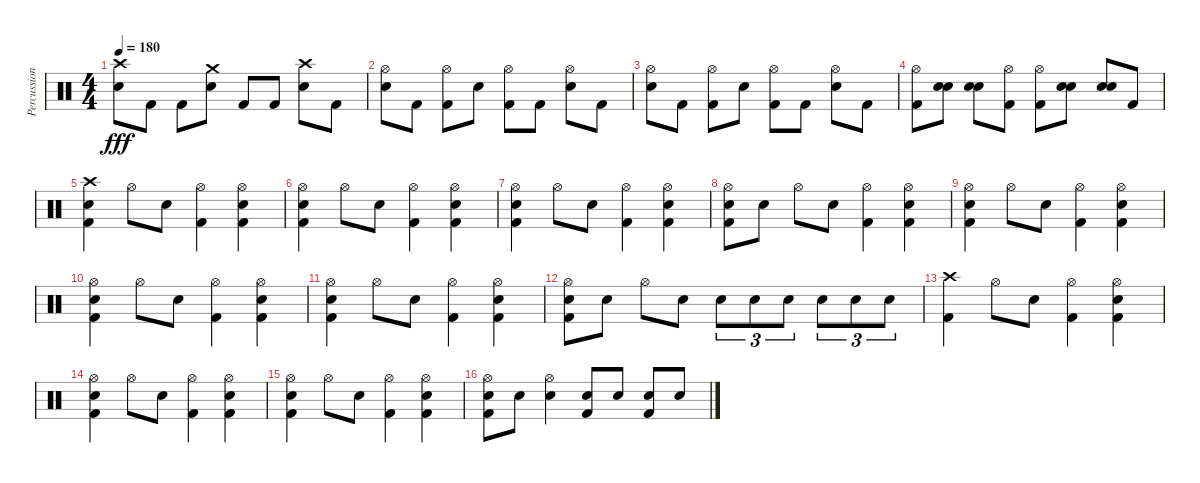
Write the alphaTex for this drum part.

\track ("Percussion" "Percussion") {instrument percussion}
\staff {score}
\articulation defaults
\ts (4 4)
\tempo 180
\clef neutral
\ks c
("Crash high (hit)" "Electric Snare (hit)").8{dy fff} "Kick (hit) 2".8 "Kick (hit) 2".8 ("Crash medium (hit)" "Electric Snare (hit)").8 "Kick (hit) 2".8 "Kick (hit) 2".8 ("Crash high (hit)" "Electric Snare (hit)").8 "Kick (hit) 2".8 |
("Hi-Hat (open)" "Electric Snare (hit)").8 "Kick (hit) 2".8 ("Hi-Hat (open)" "Kick (hit) 2").8 "Electric Snare (hit)".8 ("Hi-Hat (open)" "Kick (hit) 2").8 "Kick (hit) 2".8 ("Hi-Hat (open)" "Electric Snare (hit)").8 "Kick (hit) 2".8 |
("Hi-Hat (open)" "Electric Snare (hit)").8 "Kick (hit) 2".8 ("Hi-Hat (open)" "Kick (hit) 2").8 "Electric Snare (hit)".8 ("Hi-Hat (open)" "Kick (hit) 2").8 "Kick (hit) 2".8 ("Hi-Hat (open)" "Electric Snare (hit)").8 "Kick (hit) 2".8 |
("Hi-Hat (open)" "Kick (hit) 2").8 ("Electric Snare (hit)" "Electric Snare (hit)").8{bd 480} ("Electric Snare (hit)" "Electric Snare (hit)").8{bd 480} ("Hi-Hat (open)" "Kick (hit) 2").8 ("Hi-Hat (open)" "Kick (hit) 2").8 ("Electric Snare (hit)" "Electric Snare (hit)").8{bd 480} ("Electric Snare (hit)" "Electric Snare (hit)").8{bd 480} "Kick (hit) 2".8 |
("Crash high (hit)" "Kick (hit) 2" "Electric Snare (hit)").4 "Hi-Hat (open)".8 "Electric Snare (hit)".8 ("Hi-Hat (open)" "Kick (hit) 2").4 ("Hi-Hat (open)" "Kick (hit) 2" "Electric Snare (hit)").4 |
("Hi-Hat (open)" "Kick (hit) 2" "Electric Snare (hit)").4 "Hi-Hat (open)".8 "Electric Snare (hit)".8 ("Hi-Hat (open)" "Kick (hit) 2").4 ("Hi-Hat (open)" "Kick (hit) 2" "Electric Snare (hit)").4 |
("Hi-Hat (open)" "Kick (hit) 2" "Electric Snare (hit)").4 "Hi-Hat (open)".8 "Electric Snare (hit)".8 ("Hi-Hat (open)" "Kick (hit) 2").4 ("Hi-Hat (open)" "Kick (hit) 2" "Electric Snare (hit)").4 |
("Hi-Hat (open)" "Kick (hit) 2" "Electric Snare (hit)").8 "Electric Snare (hit)".8 "Hi-Hat (open)".8 "Electric Snare (hit)".8 ("Hi-Hat (open)" "Kick (hit) 2").4 ("Hi-Hat (open)" "Kick (hit) 2" "Electric Snare (hit)").4 |
("Hi-Hat (open)" "Kick (hit) 2" "Electric Snare (hit)").4 "Hi-Hat (open)".8 "Electric Snare (hit)".8 ("Hi-Hat (open)" "Kick (hit) 2").4 ("Hi-Hat (open)" "Kick (hit) 2" "Electric Snare (hit)").4 |
("Hi-Hat (open)" "Kick (hit) 2" "Electric Snare (hit)").4 "Hi-Hat (open)".8 "Electric Snare (hit)".8 ("Hi-Hat (open)" "Kick (hit) 2").4 ("Hi-Hat (open)" "Kick (hit) 2" "Electric Snare (hit)").4 |
("Hi-Hat (open)" "Kick (hit) 2" "Electric Snare (hit)").4 "Hi-Hat (open)".8 "Electric Snare (hit)".8 ("Hi-Hat (open)" "Kick (hit) 2").4 ("Hi-Hat (open)" "Kick (hit) 2" "Electric Snare (hit)").4 |
("Hi-Hat (open)" "Kick (hit) 2" "Electric Snare (hit)").8 "Electric Snare (hit)".8 "Hi-Hat (open)".8 "Electric Snare (hit)".8 "Electric Snare (hit)".8{tu (3 2)} "Electric Snare (hit)".8{tu (3 2)} "Electric Snare (hit)".8{tu (3 2)} "Electric Snare (hit)".8{tu (3 2)} "Electric Snare (hit)".8{tu (3 2)} "Electric Snare (hit)".8{tu (3 2)} |
("Crash high (hit)" "Kick (hit) 2").4 "Hi-Hat (open)".8 "Electric Snare (hit)".8 ("Hi-Hat (open)" "Kick (hit) 2").4 ("Hi-Hat (open)" "Kick (hit) 2" "Electric Snare (hit)").4 |
("Hi-Hat (open)" "Kick (hit) 2" "Electric Snare (hit)").4 "Hi-Hat (open)".8 "Electric Snare (hit)".8 ("Hi-Hat (open)" "Kick (hit) 2").4 ("Hi-Hat (open)" "Kick (hit) 2" "Electric Snare (hit)").4 |
("Hi-Hat (open)" "Kick (hit) 2" "Electric Snare (hit)").4 "Hi-Hat (open)".8 "Electric Snare (hit)".8 ("Hi-Hat (open)" "Kick (hit) 2").4 ("Hi-Hat (open)" "Kick (hit) 2" "Electric Snare (hit)").4 |
("Hi-Hat (open)" "Kick (hit) 2" "Electric Snare (hit)").8 "Electric Snare (hit)".8 ("Hi-Hat (open)" "Electric Snare (hit)").4 ("Kick (hit) 2" "Electric Snare (hit)").8 "Electric Snare (hit)".8 ("Kick (hit) 2" "Electric Snare (hit)").8 "Electric Snare (hit)".8
